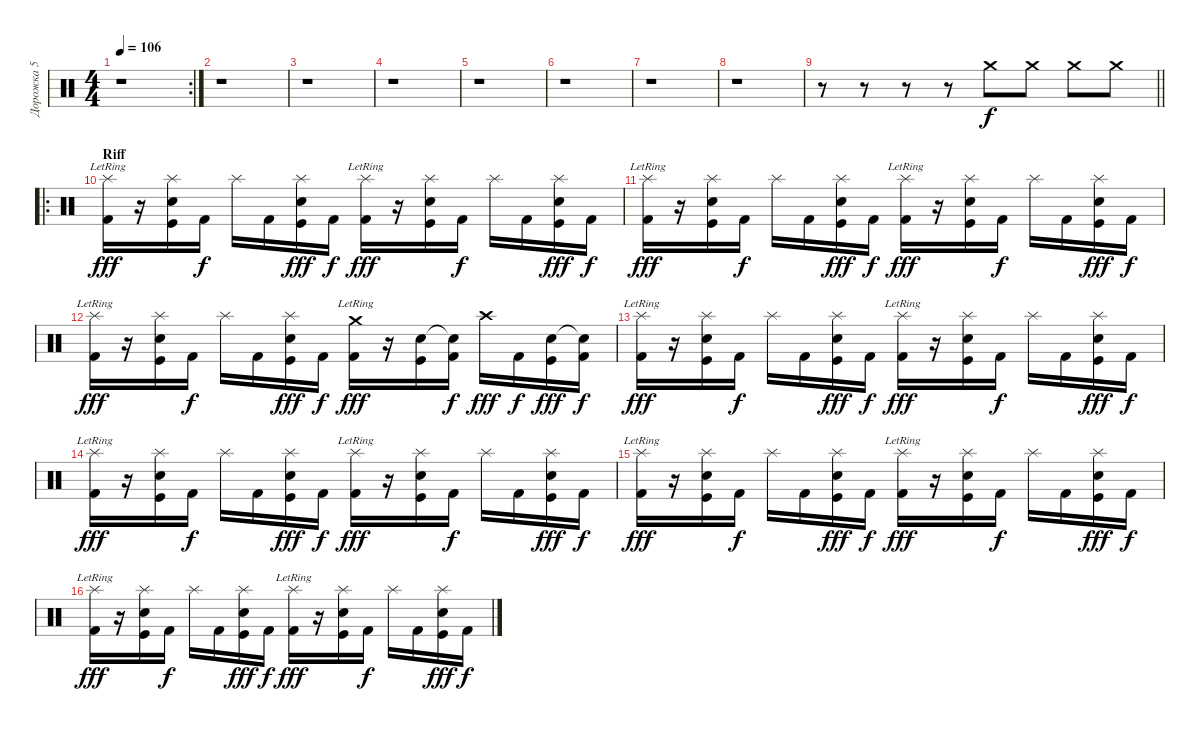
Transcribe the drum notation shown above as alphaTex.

\track ("Дорожка 5" "Дорожка 5") {instrument percussion}
\staff {score}
\articulation defaults
\rc 2
\ts (4 4)
\tempo 106
\clef neutral
\ks c
r.1{dy f} |
r.1 |
r.1 |
r.1 |
r.1 |
r.1 |
r.1 |
r.1 |
\barLineRight lightlight
r.8 r.8 r.8 r.8 "Crash medium (hit)".8 "Crash medium (hit)".8 "Crash medium (hit)".8 "Crash medium (hit)".8 |
\ro
\section ("" "Riff")
("Splash (hit)"{lr} "Kick (hit) 2").16{dy fff} r.16 ("Splash (hit)"{pm} "Electric Snare (hit)" "Kick (hit)").16 "Kick (hit) 2".16{dy f} "Splash (hit)"{pm}.16 "Kick (hit) 2".16 ("Splash (hit)"{pm} "Electric Snare (hit)" "Kick (hit)").16{dy fff} "Kick (hit) 2".16{dy f} ("Splash (hit)"{lr} "Kick (hit) 2").16{dy fff} r.16 ("Splash (hit)"{pm} "Electric Snare (hit)" "Kick (hit)").16 "Kick (hit) 2".16{dy f} "Splash (hit)"{pm}.16 "Kick (hit) 2".16 ("Splash (hit)"{pm} "Electric Snare (hit)" "Kick (hit)").16{dy fff} "Kick (hit) 2".16{dy f} |
("Splash (hit)"{lr} "Kick (hit) 2").16{dy fff} r.16 ("Splash (hit)"{pm} "Electric Snare (hit)" "Kick (hit)").16 "Kick (hit) 2".16{dy f} "Splash (hit)"{pm}.16 "Kick (hit) 2".16 ("Splash (hit)"{pm} "Electric Snare (hit)" "Kick (hit)").16{dy fff} "Kick (hit) 2".16{dy f} ("Splash (hit)"{lr} "Kick (hit) 2").16{dy fff} r.16 ("Splash (hit)"{pm} "Electric Snare (hit)" "Kick (hit)").16 "Kick (hit) 2".16{dy f} "Splash (hit)"{pm}.16 "Kick (hit) 2".16 ("Splash (hit)"{pm} "Electric Snare (hit)" "Kick (hit)").16{dy fff} "Kick (hit) 2".16{dy f} |
("Splash (hit)"{lr} "Kick (hit) 2").16{dy fff} r.16 ("Splash (hit)"{pm} "Electric Snare (hit)" "Kick (hit)").16 "Kick (hit) 2".16{dy f} "Splash (hit)"{pm}.16 "Kick (hit) 2".16 ("Splash (hit)"{pm} "Electric Snare (hit)" "Kick (hit)").16{dy fff} "Kick (hit) 2".16{dy f} ("Crash medium (hit)"{lr} "Kick (hit) 2").16{dy fff} r.16 ("Electric Snare (hit)" "Kick (hit)").16 ("Snare (hit)"{t} "Kick (hit) 2").16{dy f} "Crash high (hit)"{pm}.16{dy fff} "Kick (hit) 2".16{dy f} ("Electric Snare (hit)" "Kick (hit)").16{dy fff} ("Snare (hit)"{t} "Kick (hit) 2").16{dy f} |
("Splash (hit)"{lr} "Kick (hit) 2").16{dy fff} r.16 ("Splash (hit)"{pm} "Electric Snare (hit)" "Kick (hit)").16 "Kick (hit) 2".16{dy f} "Splash (hit)"{pm}.16 "Kick (hit) 2".16 ("Splash (hit)"{pm} "Electric Snare (hit)" "Kick (hit)").16{dy fff} "Kick (hit) 2".16{dy f} ("Splash (hit)"{lr} "Kick (hit) 2").16{dy fff} r.16 ("Splash (hit)"{pm} "Electric Snare (hit)" "Kick (hit)").16 "Kick (hit) 2".16{dy f} "Splash (hit)"{pm}.16 "Kick (hit) 2".16 ("Splash (hit)"{pm} "Electric Snare (hit)" "Kick (hit)").16{dy fff} "Kick (hit) 2".16{dy f} |
("Splash (hit)"{lr} "Kick (hit) 2").16{dy fff} r.16 ("Splash (hit)"{pm} "Electric Snare (hit)" "Kick (hit)").16 "Kick (hit) 2".16{dy f} "Splash (hit)"{pm}.16 "Kick (hit) 2".16 ("Splash (hit)"{pm} "Electric Snare (hit)" "Kick (hit)").16{dy fff} "Kick (hit) 2".16{dy f} ("Splash (hit)"{lr} "Kick (hit) 2").16{dy fff} r.16 ("Splash (hit)"{pm} "Electric Snare (hit)" "Kick (hit)").16 "Kick (hit) 2".16{dy f} "Splash (hit)"{pm}.16 "Kick (hit) 2".16 ("Splash (hit)"{pm} "Electric Snare (hit)" "Kick (hit)").16{dy fff} "Kick (hit) 2".16{dy f} |
("Splash (hit)"{lr} "Kick (hit) 2").16{dy fff} r.16 ("Splash (hit)"{pm} "Electric Snare (hit)" "Kick (hit)").16 "Kick (hit) 2".16{dy f} "Splash (hit)"{pm}.16 "Kick (hit) 2".16 ("Splash (hit)"{pm} "Electric Snare (hit)" "Kick (hit)").16{dy fff} "Kick (hit) 2".16{dy f} ("Splash (hit)"{lr} "Kick (hit) 2").16{dy fff} r.16 ("Splash (hit)"{pm} "Electric Snare (hit)" "Kick (hit)").16 "Kick (hit) 2".16{dy f} "Splash (hit)"{pm}.16 "Kick (hit) 2".16 ("Splash (hit)"{pm} "Electric Snare (hit)" "Kick (hit)").16{dy fff} "Kick (hit) 2".16{dy f} |
("Splash (hit)"{lr} "Kick (hit) 2").16{dy fff} r.16 ("Splash (hit)"{pm} "Electric Snare (hit)" "Kick (hit)").16 "Kick (hit) 2".16{dy f} "Splash (hit)"{pm}.16 "Kick (hit) 2".16 ("Splash (hit)"{pm} "Electric Snare (hit)" "Kick (hit)").16{dy fff} "Kick (hit) 2".16{dy f} ("Splash (hit)"{lr} "Kick (hit) 2").16{dy fff} r.16 ("Splash (hit)"{pm} "Electric Snare (hit)" "Kick (hit)").16 "Kick (hit) 2".16{dy f} "Splash (hit)"{pm}.16 "Kick (hit) 2".16 ("Splash (hit)"{pm} "Electric Snare (hit)" "Kick (hit)").16{dy fff} "Kick (hit) 2".16{dy f}
